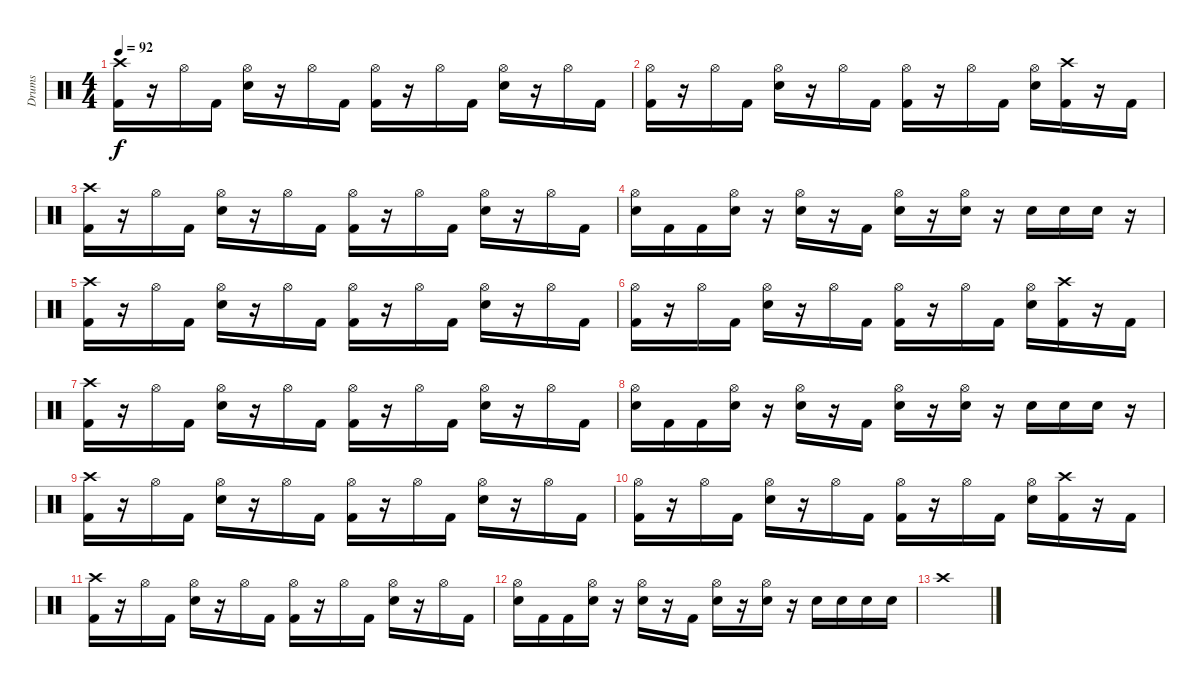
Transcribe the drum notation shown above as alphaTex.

\track ("Drums" "Drums") {instrument percussion}
\staff {score}
\articulation defaults
\ts (4 4)
\tempo 92
\clef neutral
\ks c
("Crash high (hit)" "Kick (hit) 2").16{dy f} r.16 "Hi-Hat (open)".16 "Kick (hit) 2".16 ("Hi-Hat (open)" "Electric Snare (hit)").16 r.16 "Hi-Hat (open)".16 "Kick (hit) 2".16 ("Hi-Hat (open)" "Kick (hit) 2").16 r.16 "Hi-Hat (open)".16 "Kick (hit) 2".16 ("Hi-Hat (open)" "Electric Snare (hit)").16 r.16 "Hi-Hat (open)".16 "Kick (hit) 2".16 |
("Hi-Hat (open)" "Kick (hit) 2").16 r.16 "Hi-Hat (open)".16 "Kick (hit) 2".16 ("Hi-Hat (open)" "Electric Snare (hit)").16 r.16 "Hi-Hat (open)".16 "Kick (hit) 2".16 ("Hi-Hat (open)" "Kick (hit) 2").16 r.16 "Hi-Hat (open)".16 "Kick (hit) 2".16 ("Hi-Hat (open)" "Electric Snare (hit)").16 ("Crash high (hit)" "Kick (hit) 2").16 r.16 "Kick (hit) 2".16 |
("Crash high (hit)" "Kick (hit) 2").16 r.16 "Hi-Hat (open)".16 "Kick (hit) 2".16 ("Hi-Hat (open)" "Electric Snare (hit)").16 r.16 "Hi-Hat (open)".16 "Kick (hit) 2".16 ("Hi-Hat (open)" "Kick (hit) 2").16 r.16 "Hi-Hat (open)".16 "Kick (hit) 2".16 ("Hi-Hat (open)" "Electric Snare (hit)").16 r.16 "Hi-Hat (open)".16 "Kick (hit) 2".16 |
("Hi-Hat (open)" "Electric Snare (hit)").16 "Kick (hit) 2".16 "Kick (hit) 2".16 ("Hi-Hat (open)" "Electric Snare (hit)").16 r.16 ("Hi-Hat (open)" "Electric Snare (hit)").16 r.16 "Kick (hit) 2".16 ("Hi-Hat (open)" "Electric Snare (hit)").16 r.16 ("Hi-Hat (open)" "Electric Snare (hit)").16 r.16 "Electric Snare (hit)".16 "Electric Snare (hit)".16 "Electric Snare (hit)".16 r.16 |
("Crash high (hit)" "Kick (hit) 2").16 r.16 "Hi-Hat (open)".16 "Kick (hit) 2".16 ("Hi-Hat (open)" "Electric Snare (hit)").16 r.16 "Hi-Hat (open)".16 "Kick (hit) 2".16 ("Hi-Hat (open)" "Kick (hit) 2").16 r.16 "Hi-Hat (open)".16 "Kick (hit) 2".16 ("Hi-Hat (open)" "Electric Snare (hit)").16 r.16 "Hi-Hat (open)".16 "Kick (hit) 2".16 |
("Hi-Hat (open)" "Kick (hit) 2").16 r.16 "Hi-Hat (open)".16 "Kick (hit) 2".16 ("Hi-Hat (open)" "Electric Snare (hit)").16 r.16 "Hi-Hat (open)".16 "Kick (hit) 2".16 ("Hi-Hat (open)" "Kick (hit) 2").16 r.16 "Hi-Hat (open)".16 "Kick (hit) 2".16 ("Hi-Hat (open)" "Electric Snare (hit)").16 ("Crash high (hit)" "Kick (hit) 2").16 r.16 "Kick (hit) 2".16 |
("Crash high (hit)" "Kick (hit) 2").16 r.16 "Hi-Hat (open)".16 "Kick (hit) 2".16 ("Hi-Hat (open)" "Electric Snare (hit)").16 r.16 "Hi-Hat (open)".16 "Kick (hit) 2".16 ("Hi-Hat (open)" "Kick (hit) 2").16 r.16 "Hi-Hat (open)".16 "Kick (hit) 2".16 ("Hi-Hat (open)" "Electric Snare (hit)").16 r.16 "Hi-Hat (open)".16 "Kick (hit) 2".16 |
("Hi-Hat (open)" "Electric Snare (hit)").16 "Kick (hit) 2".16 "Kick (hit) 2".16 ("Hi-Hat (open)" "Electric Snare (hit)").16 r.16 ("Hi-Hat (open)" "Electric Snare (hit)").16 r.16 "Kick (hit) 2".16 ("Hi-Hat (open)" "Electric Snare (hit)").16 r.16 ("Hi-Hat (open)" "Electric Snare (hit)").16 r.16 "Electric Snare (hit)".16 "Electric Snare (hit)".16 "Electric Snare (hit)".16 r.16 |
("Crash high (hit)" "Kick (hit) 2").16 r.16 "Hi-Hat (open)".16 "Kick (hit) 2".16 ("Hi-Hat (open)" "Electric Snare (hit)").16 r.16 "Hi-Hat (open)".16 "Kick (hit) 2".16 ("Hi-Hat (open)" "Kick (hit) 2").16 r.16 "Hi-Hat (open)".16 "Kick (hit) 2".16 ("Hi-Hat (open)" "Electric Snare (hit)").16 r.16 "Hi-Hat (open)".16 "Kick (hit) 2".16 |
("Hi-Hat (open)" "Kick (hit) 2").16 r.16 "Hi-Hat (open)".16 "Kick (hit) 2".16 ("Hi-Hat (open)" "Electric Snare (hit)").16 r.16 "Hi-Hat (open)".16 "Kick (hit) 2".16 ("Hi-Hat (open)" "Kick (hit) 2").16 r.16 "Hi-Hat (open)".16 "Kick (hit) 2".16 ("Hi-Hat (open)" "Electric Snare (hit)").16 ("Crash high (hit)" "Kick (hit) 2").16 r.16 "Kick (hit) 2".16 |
("Crash high (hit)" "Kick (hit) 2").16 r.16 "Hi-Hat (open)".16 "Kick (hit) 2".16 ("Hi-Hat (open)" "Electric Snare (hit)").16 r.16 "Hi-Hat (open)".16 "Kick (hit) 2".16 ("Hi-Hat (open)" "Kick (hit) 2").16 r.16 "Hi-Hat (open)".16 "Kick (hit) 2".16 ("Hi-Hat (open)" "Electric Snare (hit)").16 r.16 "Hi-Hat (open)".16 "Kick (hit) 2".16 |
("Hi-Hat (open)" "Electric Snare (hit)").16 "Kick (hit) 2".16 "Kick (hit) 2".16 ("Hi-Hat (open)" "Electric Snare (hit)").16 r.16 ("Hi-Hat (open)" "Electric Snare (hit)").16 r.16 "Kick (hit) 2".16 ("Hi-Hat (open)" "Electric Snare (hit)").16 r.16 ("Hi-Hat (open)" "Electric Snare (hit)").16 r.16 "Electric Snare (hit)".16 "Electric Snare (hit)".16 "Electric Snare (hit)".16 "Electric Snare (hit)".16 |
"Crash high (hit)".1
